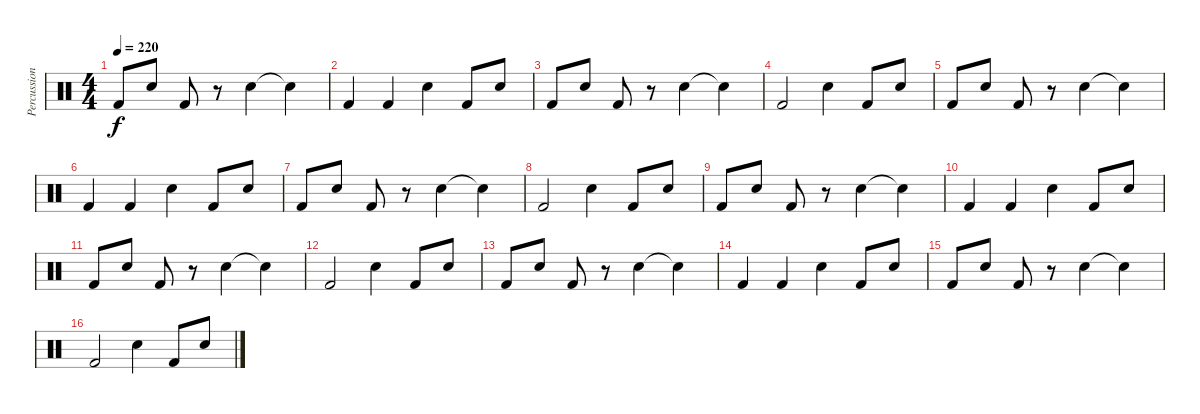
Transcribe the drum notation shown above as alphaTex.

\track ("Percussions" "Percussion") {instrument percussion}
\staff {score}
\articulation defaults
\ts (4 4)
\tempo 220
\clef neutral
\ks c "Kick (hit) 2".8{dy f} "Electric Snare (hit)".8 "Kick (hit) 2".8
r.8 "Electric Snare (hit)".4 "Snare (hit)"{t}.4 |
"Kick (hit) 2".4 "Kick (hit) 2".4 "Electric Snare (hit)".4 "Kick (hit) 2".8 "Electric Snare (hit)".8 |
"Kick (hit) 2".8 "Electric Snare (hit)".8 "Kick (hit) 2".8 r.8 "Electric Snare (hit)".4 "Electric Snare (hit)"{t}.4 |
"Kick (hit) 2".2 "Electric Snare (hit)".4 "Kick (hit) 2".8 "Electric Snare (hit)".8 |
"Kick (hit) 2".8 "Electric Snare (hit)".8 "Kick (hit) 2".8 r.8 "Electric Snare (hit)".4 "Snare (hit)"{t}.4 |
"Kick (hit) 2".4 "Kick (hit) 2".4 "Electric Snare (hit)".4 "Kick (hit) 2".8 "Electric Snare (hit)".8 |
"Kick (hit) 2".8 "Electric Snare (hit)".8 "Kick (hit) 2".8 r.8 "Electric Snare (hit)".4 "Electric Snare (hit)"{t}.4 |
"Kick (hit) 2".2 "Electric Snare (hit)".4 "Kick (hit) 2".8 "Electric Snare (hit)".8 |
"Kick (hit) 2".8 "Electric Snare (hit)".8 "Kick (hit) 2".8 r.8 "Electric Snare (hit)".4 "Snare (hit)"{t}.4 |
"Kick (hit) 2".4 "Kick (hit) 2".4 "Electric Snare (hit)".4 "Kick (hit) 2".8 "Electric Snare (hit)".8 |
"Kick (hit) 2".8 "Electric Snare (hit)".8 "Kick (hit) 2".8 r.8 "Electric Snare (hit)".4 "Electric Snare (hit)"{t}.4 |
"Kick (hit) 2".2 "Electric Snare (hit)".4 "Kick (hit) 2".8 "Electric Snare (hit)".8 |
"Kick (hit) 2".8 "Electric Snare (hit)".8 "Kick (hit) 2".8 r.8 "Electric Snare (hit)".4 "Snare (hit)"{t}.4 |
"Kick (hit) 2".4 "Kick (hit) 2".4 "Electric Snare (hit)".4 "Kick (hit) 2".8 "Electric Snare (hit)".8 |
"Kick (hit) 2".8 "Electric Snare (hit)".8 "Kick (hit) 2".8 r.8 "Electric Snare (hit)".4 "Electric Snare (hit)"{t}.4 |
"Kick (hit) 2".2 "Electric Snare (hit)".4 "Kick (hit) 2".8 "Electric Snare (hit)".8
